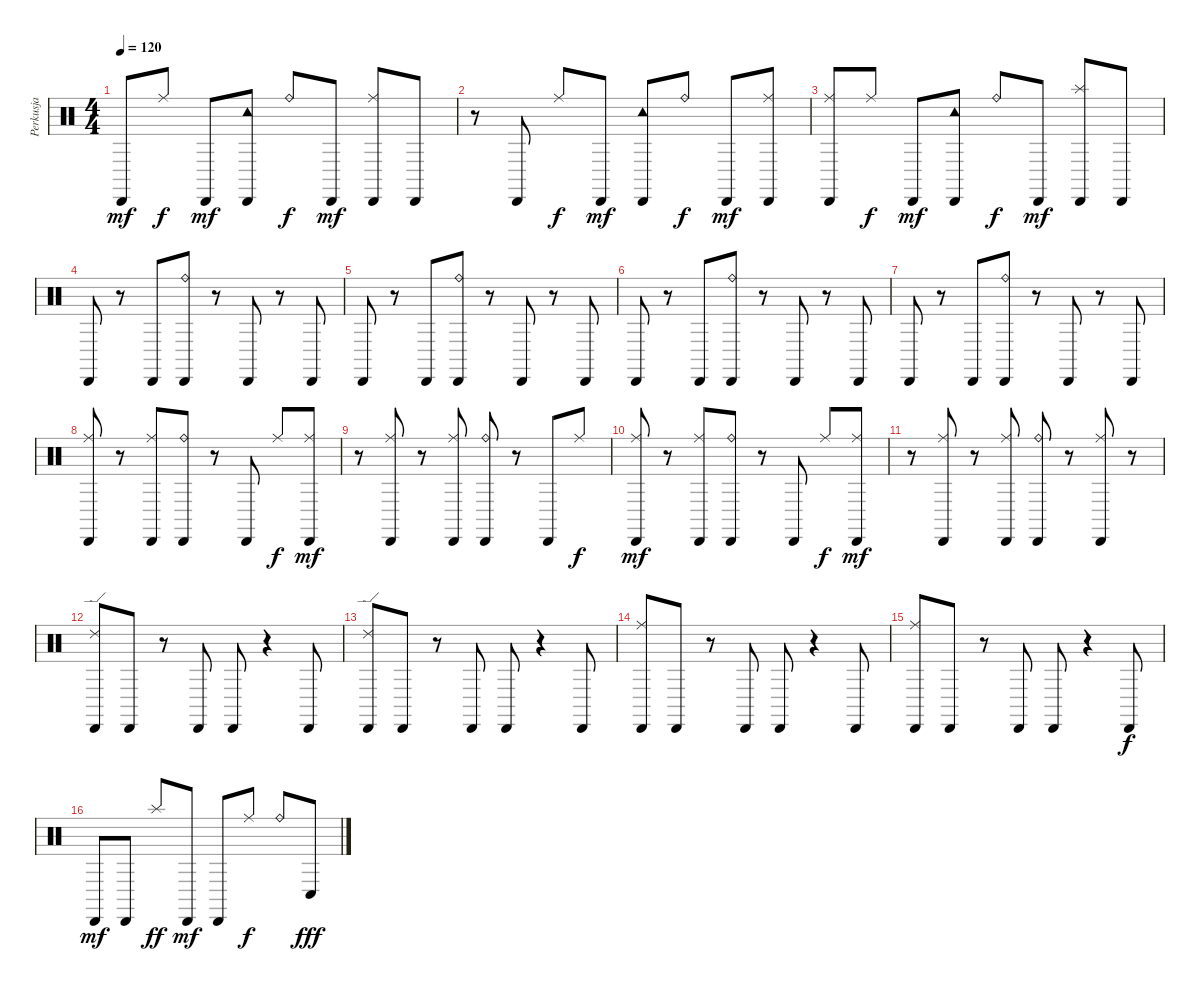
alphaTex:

\track ("Perkusja" "Perkusja") {instrument percussion}
\staff {score}
\articulation defaults
\ts (4 4)
\tempo 120
\clef neutral
\ks c "Cabasa (hit)".8{dy mf} "Ride (middle)".8{dy f} "Cabasa (hit)".8{dy mf}
("Tambourine (hit)" "Cabasa (hit)").8 "Ride (bell)".8{dy f} "Cabasa (hit)".8{dy mf} ("Ride (middle)" "Cabasa (hit)").8 "Cabasa (hit)".8 |
r.8 "Cabasa (hit)".8 "Ride (middle)".8{dy f} "Cabasa (hit)".8{dy mf} ("Tambourine (hit)" "Cabasa (hit)").8 "Ride (bell)".8{dy f} "Cabasa (hit)".8{dy mf} ("Ride (middle)" "Cabasa (hit)").8 |
("Ride (middle)" "Cabasa (hit)").8 "Ride (middle)".8{dy f} "Cabasa (hit)".8{dy mf} ("Tambourine (hit)" "Cabasa (hit)").8 "Ride (bell)".8{dy f} "Cabasa (hit)".8{dy mf} ("Splash (hit)" "Cabasa (hit)").8 "Cabasa (hit)".8 |
"Cabasa (hit)".8 r.8 "Cabasa (hit)".8 ("Ride (bell)" "Cabasa (hit)").8 r.8 "Cabasa (hit)".8 r.8 "Cabasa (hit)".8 |
"Cabasa (hit)".8 r.8 "Cabasa (hit)".8 ("Ride (bell)" "Cabasa (hit)").8 r.8 "Cabasa (hit)".8 r.8 "Cabasa (hit)".8 |
"Cabasa (hit)".8 r.8 "Cabasa (hit)".8 ("Ride (bell)" "Cabasa (hit)").8 r.8 "Cabasa (hit)".8 r.8 "Cabasa (hit)".8 |
"Cabasa (hit)".8 r.8 "Cabasa (hit)".8 ("Ride (bell)" "Cabasa (hit)").8 r.8 "Cabasa (hit)".8 r.8 "Cabasa (hit)".8 |
("Ride (middle)" "Cabasa (hit)").8 r.8 ("Ride (middle)" "Cabasa (hit)").8 ("Ride (bell)" "Cabasa (hit)").8 r.8 "Cabasa (hit)".8 "Ride (middle)".8{dy f} ("Ride (middle)" "Cabasa (hit)").8{dy mf} |
r.8 ("Ride (middle)" "Cabasa (hit)").8 r.8 ("Ride (middle)" "Cabasa (hit)").8 ("Ride (bell)" "Cabasa (hit)").8 r.8 "Cabasa (hit)".8 "Ride (middle)".8{dy f} |
("Ride (middle)" "Cabasa (hit)").8{dy mf} r.8 ("Ride (middle)" "Cabasa (hit)").8 ("Ride (bell)" "Cabasa (hit)").8 r.8 "Cabasa (hit)".8 "Ride (middle)".8{dy f} ("Ride (middle)" "Cabasa (hit)").8{dy mf} |
r.8 ("Ride (middle)" "Cabasa (hit)").8 r.8 ("Ride (middle)" "Cabasa (hit)").8 ("Ride (bell)" "Cabasa (hit)").8 r.8 ("Ride (middle)" "Cabasa (hit)").8 r.8 |
("Ride (edge) 2" "Cabasa (hit)").8 "Cabasa (hit)".8 r.8 "Cabasa (hit)".8 "Cabasa (hit)".8 r.4 "Cabasa (hit)".8 |
("Ride (edge) 2" "Cabasa (hit)").8 "Cabasa (hit)".8 r.8 "Cabasa (hit)".8 "Cabasa (hit)".8 r.4 "Cabasa (hit)".8 |
("Ride (middle)" "Cabasa (hit)").8 "Cabasa (hit)".8 r.8 "Cabasa (hit)".8 "Cabasa (hit)".8 r.4 "Cabasa (hit)".8 |
("Ride (middle)" "Cabasa (hit)").8 "Cabasa (hit)".8 r.8 "Cabasa (hit)".8 "Cabasa (hit)".8 r.4 "Cabasa (hit)".8{dy f} |
"Cabasa (hit)".8{dy mf} "Cabasa (hit)".8 "Splash (hit)".8{dy ff} "Cabasa (hit)".8{dy mf} "Cabasa (hit)".8 "Ride (middle)".8{dy f} "Ride (bell)".8 "Conga low (hit)".8{dy fff}
